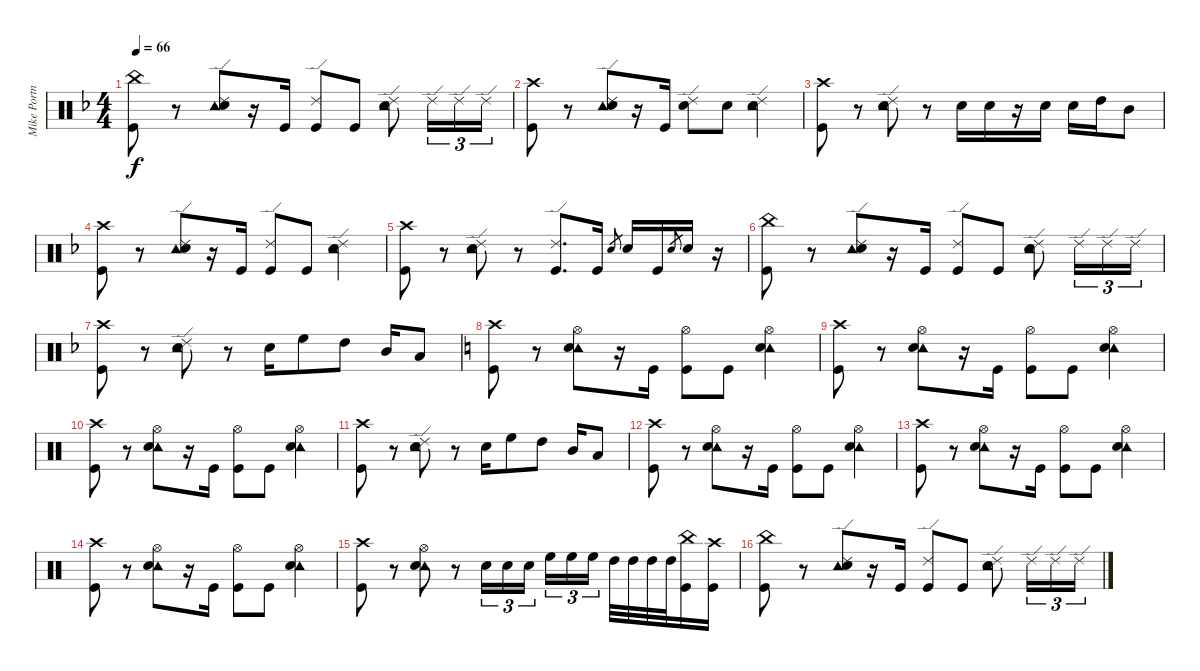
\track ("Mike Portnoy - Drums" "Mike Portn") {instrument percussion}
\staff {score}
\articulation defaults
\ts (4 4)
\tempo 66
\clef neutral
\ks dminor
("China (hit)" "Kick (hit)").8{dy f} r.8 ("Ride (edge) 2" "Tambourine (hit)" "Snare (hit) 2").8 r.16 "Kick (hit)".16 ("Ride (edge) 2" "Kick (hit)").8 "Kick (hit)".8 ("Ride (edge) 2" "Tambourine (hit)" "Snare (hit) 2").8 "Ride (edge) 2".16{tu (3 2)} "Ride (edge) 2".16{tu (3 2)} "Ride (edge) 2".16{tu (3 2)} |
("Crash high (hit)" "Kick (hit)").8 r.8 ("Ride (edge) 2" "Tambourine (hit)" "Snare (hit) 2").8 r.16 "Kick (hit)".16 ("Ride (edge) 2" "Snare (hit) 2").8 "Snare (hit) 2".8 ("Ride (edge) 2" "Tambourine (hit)" "Snare (hit) 2").4 |
("Crash high (hit)" "Kick (hit)").8 r.8 ("Ride (edge) 2" "Tambourine (hit)" "Snare (hit) 2").8 r.8 "Snare (hit) 2".16 "Snare (hit) 2".16 r.16 "Snare (hit) 2".16 "Snare (hit) 2".16 "High Tom (hit)".16 "Mid Tom (hit)".8 |
("Crash high (hit)" "Kick (hit)").8 r.8 ("Ride (edge) 2" "Tambourine (hit)" "Snare (hit) 2").8 r.16 "Kick (hit)".16 ("Ride (edge) 2" "Kick (hit)").8 "Kick (hit)".8 ("Ride (edge) 2" "Tambourine (hit)" "Snare (hit) 2").4 |
("Crash high (hit)" "Kick (hit)").8 r.8 ("Ride (edge) 2" "Tambourine (hit)" "Snare (hit) 2").8 r.8 ("Ride (edge) 2" "Kick (hit)").8{d} "Kick (hit)".16 "Snare (hit) 2".8{gr} "Snare (hit) 2".16 "Kick (hit)".16 "Snare (hit) 2".8{gr} "Snare (hit) 2".16 r.16 |
("China (hit)" "Kick (hit)").8 r.8 ("Ride (edge) 2" "Tambourine (hit)" "Snare (hit) 2").8 r.16 "Kick (hit)".16 ("Ride (edge) 2" "Kick (hit)").8 "Kick (hit)".8 ("Ride (edge) 2" "Tambourine (hit)" "Snare (hit) 2").8 "Ride (edge) 2".16{tu (3 2)} "Ride (edge) 2".16{tu (3 2)} "Ride (edge) 2".16{tu (3 2)} |
("Crash high (hit)" "Kick (hit)").8 r.8 ("Ride (edge) 2" "Tambourine (hit)" "Snare (hit) 2").8 r.8 "Snare (hit) 2".16 "High Floor Tom (hit)".8 "High Tom (hit)".8 "Mid Tom (hit)".16 "Low Tom (hit)".8 |
\ks aminor
("Crash high (hit)" "Kick (hit)").8 r.8 ("Hi-Hat (open)" "Tambourine (hit)" "Snare (hit) 2").8 r.16 "Kick (hit)".16 ("Hi-Hat (open)" "Kick (hit)").8 "Kick (hit)".8 ("Hi-Hat (open)" "Tambourine (hit)" "Snare (hit) 2").4 |
("Crash high (hit)" "Kick (hit)").8 r.8 ("Hi-Hat (open)" "Tambourine (hit)" "Snare (hit) 2").8 r.16 "Kick (hit)".16 ("Hi-Hat (open)" "Kick (hit)").8 "Kick (hit)".8 ("Hi-Hat (open)" "Tambourine (hit)" "Snare (hit) 2").4 |
("Crash high (hit)" "Kick (hit)").8 r.8 ("Hi-Hat (open)" "Tambourine (hit)" "Snare (hit) 2").8 r.16 "Kick (hit)".16 ("Hi-Hat (open)" "Kick (hit)").8 "Kick (hit)".8 ("Hi-Hat (open)" "Tambourine (hit)" "Snare (hit) 2").4 |
("Crash high (hit)" "Kick (hit)").8 r.8 ("Ride (edge) 2" "Tambourine (hit)" "Snare (hit) 2").8 r.8 "Snare (hit) 2".16 "High Floor Tom (hit)".8 "High Tom (hit)".8 "Mid Tom (hit)".16 "Low Tom (hit)".8 |
("Crash high (hit)" "Kick (hit)").8 r.8 ("Hi-Hat (open)" "Tambourine (hit)" "Snare (hit) 2").8 r.16 "Kick (hit)".16 ("Hi-Hat (open)" "Kick (hit)").8 "Kick (hit)".8 ("Hi-Hat (open)" "Tambourine (hit)" "Snare (hit) 2").4 |
("Crash high (hit)" "Kick (hit)").8 r.8 ("Hi-Hat (open)" "Tambourine (hit)" "Snare (hit) 2").8 r.16 "Kick (hit)".16 ("Hi-Hat (open)" "Kick (hit)").8 "Kick (hit)".8 ("Hi-Hat (open)" "Tambourine (hit)" "Snare (hit) 2").4 |
("Crash high (hit)" "Kick (hit)").8 r.8 ("Hi-Hat (open)" "Tambourine (hit)" "Snare (hit) 2").8 r.16 "Kick (hit)".16 ("Hi-Hat (open)" "Kick (hit)").8 "Kick (hit)".8 ("Hi-Hat (open)" "Tambourine (hit)" "Snare (hit) 2").4 |
("Crash high (hit)" "Kick (hit)").8 r.8 ("Hi-Hat (open)" "Tambourine (hit)" "Snare (hit) 2").8 r.8 "Snare (hit) 2".16{tu (3 2)} "Snare (hit) 2".16{tu (3 2)} "Snare (hit) 2".16{tu (3 2) beam splitsecondary} "High Floor Tom (hit)".16{tu (3 2)} "High Floor Tom (hit)".16{tu (3 2)} "High Floor Tom (hit)".16{tu (3 2)} "High Tom (hit)".32 "High Tom (hit)".32 "High Tom (hit)".32 "High Tom (hit)".32 ("China (hit)" "Kick (hit)").16 ("Crash high (hit)" "Kick (hit)").16 |
("China (hit)" "Kick (hit)").8 r.8 ("Ride (edge) 2" "Tambourine (hit)" "Snare (hit) 2").8 r.16 "Kick (hit)".16 ("Ride (edge) 2" "Kick (hit)").8 "Kick (hit)".8 ("Ride (edge) 2" "Tambourine (hit)" "Snare (hit) 2").8 "Ride (edge) 2".16{tu (3 2)} "Ride (edge) 2".16{tu (3 2)} "Ride (edge) 2".16{tu (3 2)}
